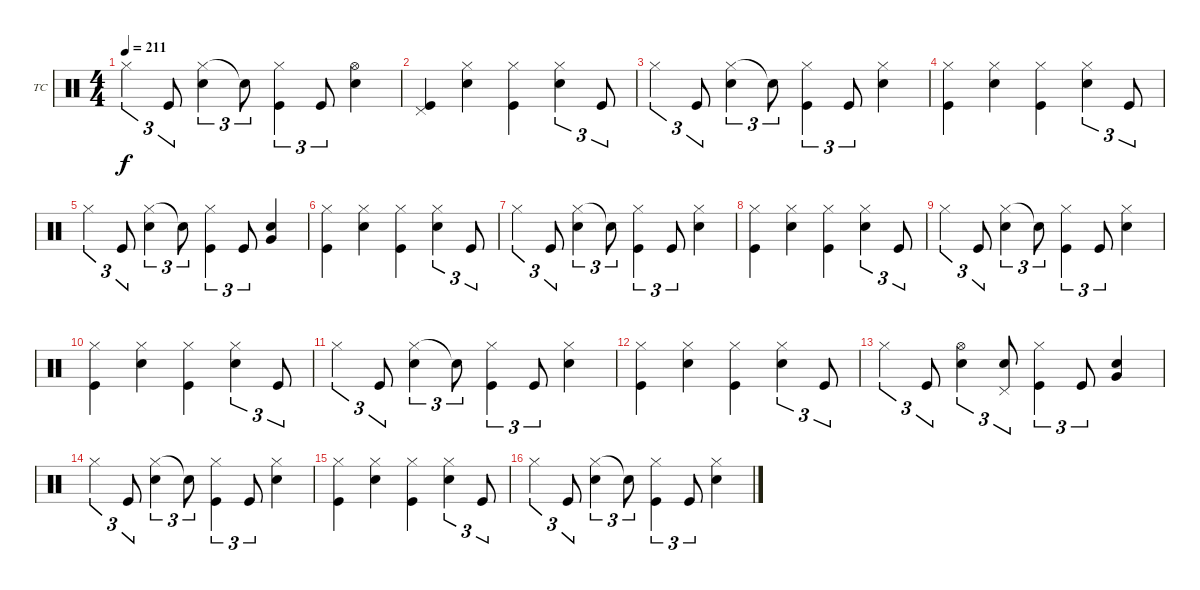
\defaultSystemsLayout 4
\bracketExtendMode groupsimilarinstruments
\firstSystemTrackNameOrientation horizontal
\otherSystemsTrackNameOrientation horizontal
\track ("Drums - Tre Cool" "TC") {instrument percussion}
\staff {score}
\articulation defaults
\ts (4 4)
\tempo 211
\clef neutral
\scale
0.333333
\ks c "Hi-Hat (closed)".4{tu (3 2) dy f} "Kick (hit)".8{tu (3 2)}
("Hi-Hat (closed)" "Snare (hit) 2").4{tu (3 2)} "Snare (hit) 2"{t}.8{tu (3 2)} ("Hi-Hat (closed)" "Kick (hit)").4{tu (3 2)} "Kick (hit)".8{tu (3 2)} ("Hi-Hat (open)" "Snare (hit) 2").4 |
\scale
0.333333 ("Pedal Hi-Hat (hit)" "Kick (hit)").4 ("Hi-Hat (closed)" "Snare (hit) 2").4 ("Hi-Hat (closed)" "Kick (hit)").4 ("Hi-Hat (closed)" "Snare (hit) 2").4{tu (3 2)} "Kick (hit)".8{tu (3 2)} |
\scale
0.333333 "Hi-Hat (closed)".4{tu (3 2)} "Kick (hit)".8{tu (3 2)} ("Hi-Hat (closed)" "Snare (hit) 2").4{tu (3 2)} "Snare (hit) 2"{t}.8{tu (3 2)} ("Hi-Hat (closed)" "Kick (hit)").4{tu (3 2)} "Kick (hit)".8{tu (3 2)} ("Hi-Hat (closed)" "Snare (hit) 2").4 |
\scale
0.333333 ("Hi-Hat (closed)" "Kick (hit)").4 ("Hi-Hat (closed)" "Snare (hit) 2").4 ("Hi-Hat (closed)" "Kick (hit)").4 ("Hi-Hat (closed)" "Snare (hit) 2").4{tu (3 2)} "Kick (hit)".8{tu (3 2)} |
\scale
0.333333 "Hi-Hat (closed)".4{tu (3 2)} "Kick (hit)".8{tu (3 2)} ("Hi-Hat (closed)" "Snare (hit) 2").4{tu (3 2)} "Snare (hit) 2"{t}.8{tu (3 2)} ("Hi-Hat (closed)" "Kick (hit)").4{tu (3 2)} "Kick (hit)".8{tu (3 2)} ("Very Low Tom (hit)" "Snare (hit) 2").4 |
\scale
0.333333 ("Hi-Hat (closed)" "Kick (hit)").4 ("Hi-Hat (closed)" "Snare (hit) 2").4 ("Hi-Hat (closed)" "Kick (hit)").4 ("Hi-Hat (closed)" "Snare (hit) 2").4{tu (3 2)} "Kick (hit)".8{tu (3 2)} |
\scale
0.333333 "Hi-Hat (closed)".4{tu (3 2)} "Kick (hit)".8{tu (3 2)} ("Hi-Hat (closed)" "Snare (hit) 2").4{tu (3 2)} "Snare (hit) 2"{t}.8{tu (3 2)} ("Hi-Hat (closed)" "Kick (hit)").4{tu (3 2)} "Kick (hit)".8{tu (3 2)} ("Hi-Hat (closed)" "Snare (hit) 2").4 |
\scale
0.333333 ("Hi-Hat (closed)" "Kick (hit)").4 ("Hi-Hat (closed)" "Snare (hit) 2").4 ("Hi-Hat (closed)" "Kick (hit)").4 ("Hi-Hat (closed)" "Snare (hit) 2").4{tu (3 2)} "Kick (hit)".8{tu (3 2)} |
\scale
0.333333 "Hi-Hat (closed)".4{tu (3 2)} "Kick (hit)".8{tu (3 2)} ("Hi-Hat (closed)" "Snare (hit) 2").4{tu (3 2)} "Snare (hit) 2"{t}.8{tu (3 2)} ("Hi-Hat (closed)" "Kick (hit)").4{tu (3 2)} "Kick (hit)".8{tu (3 2)} ("Hi-Hat (closed)" "Snare (hit) 2").4 |
\scale
0.333333 ("Hi-Hat (closed)" "Kick (hit)").4 ("Hi-Hat (closed)" "Snare (hit) 2").4 ("Hi-Hat (closed)" "Kick (hit)").4 ("Hi-Hat (closed)" "Snare (hit) 2").4{tu (3 2)} "Kick (hit)".8{tu (3 2)} |
\scale
0.333333 "Hi-Hat (closed)".4{tu (3 2)} "Kick (hit)".8{tu (3 2)} ("Hi-Hat (closed)" "Snare (hit) 2").4{tu (3 2)} "Snare (hit) 2"{t}.8{tu (3 2)} ("Hi-Hat (closed)" "Kick (hit)").4{tu (3 2)} "Kick (hit)".8{tu (3 2)} ("Hi-Hat (closed)" "Snare (hit) 2").4 |
\scale
0.333333 ("Hi-Hat (closed)" "Kick (hit)").4 ("Hi-Hat (closed)" "Snare (hit) 2").4 ("Hi-Hat (closed)" "Kick (hit)").4 ("Hi-Hat (closed)" "Snare (hit) 2").4{tu (3 2)} "Kick (hit)".8{tu (3 2)} |
\scale
0.333333 "Hi-Hat (closed)".4{tu (3 2)} "Kick (hit)".8{tu (3 2)} ("Hi-Hat (open)" "Snare (hit) 2").4{tu (3 2)} ("Pedal Hi-Hat (hit)" "Snare (hit) 2").8{tu (3 2)} ("Hi-Hat (closed)" "Kick (hit)").4{tu (3 2)} "Kick (hit)".8{tu (3 2)} ("Very Low Tom (hit)" "Snare (hit) 2").4 |
\scale
0.333333 "Hi-Hat (closed)".4{tu (3 2)} "Kick (hit)".8{tu (3 2)} ("Hi-Hat (closed)" "Snare (hit) 2").4{tu (3 2)} "Snare (hit) 2"{t}.8{tu (3 2)} ("Hi-Hat (closed)" "Kick (hit)").4{tu (3 2)} "Kick (hit)".8{tu (3 2)} ("Hi-Hat (closed)" "Snare (hit) 2").4 |
\scale
0.333333 ("Hi-Hat (closed)" "Kick (hit)").4 ("Hi-Hat (closed)" "Snare (hit) 2").4 ("Hi-Hat (closed)" "Kick (hit)").4 ("Hi-Hat (closed)" "Snare (hit) 2").4{tu (3 2)} "Kick (hit)".8{tu (3 2)} |
\scale
0.333333 "Hi-Hat (closed)".4{tu (3 2)} "Kick (hit)".8{tu (3 2)} ("Hi-Hat (closed)" "Snare (hit) 2").4{tu (3 2)} "Snare (hit) 2"{t}.8{tu (3 2)} ("Hi-Hat (closed)" "Kick (hit)").4{tu (3 2)} "Kick (hit)".8{tu (3 2)} ("Hi-Hat (closed)" "Snare (hit) 2").4
